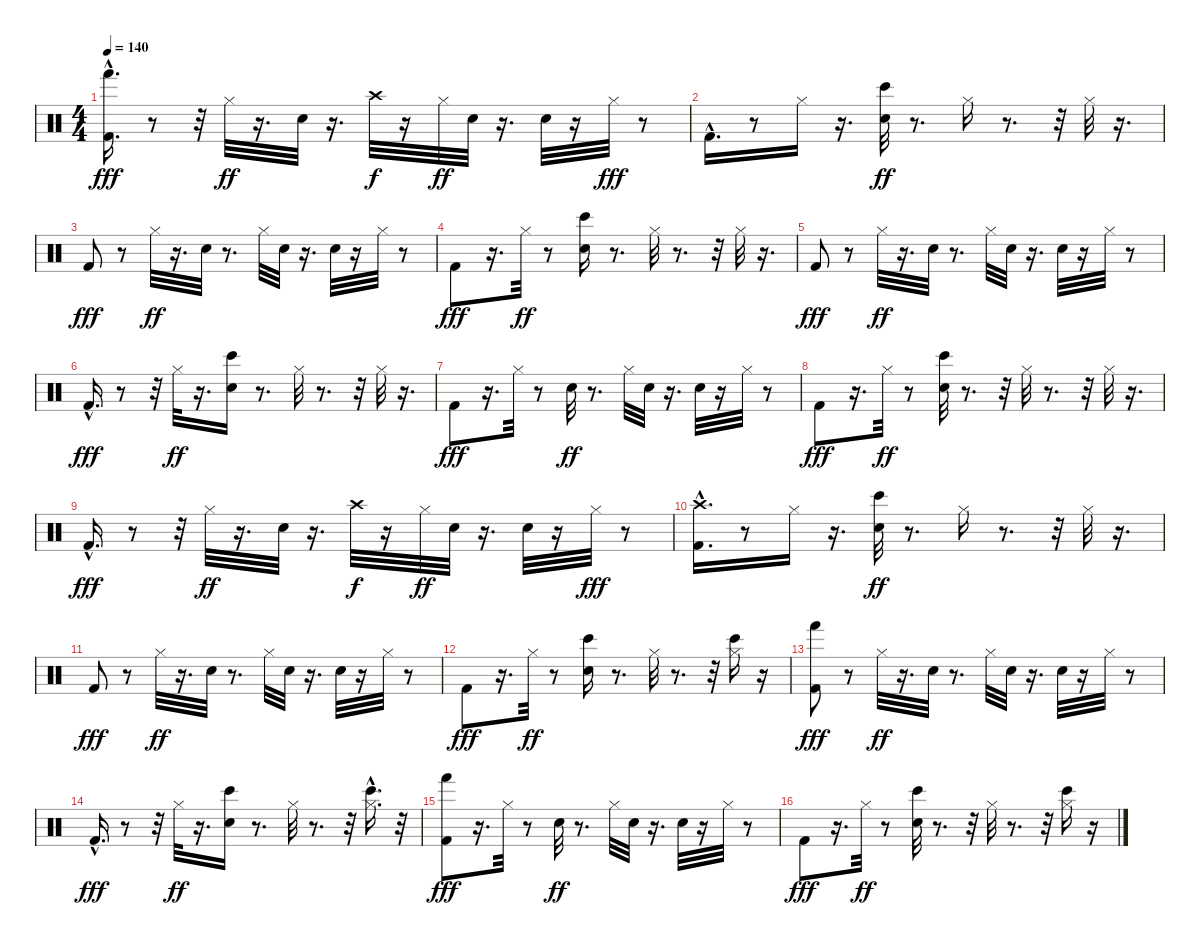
\track "" {instrument percussion}
\staff {score}
\articulation defaults
\ts (4 4)
\tempo 140
\clef neutral
\ks c
("Hand (hit)" "Kick (hit) 2"{hac}).16{d dy fff} r.8 r.32 "Hi-Hat (closed)".32{dy ff} r.16{d} "Electric Snare (hit)".32 r.16{d} "Crash high (hit)".32{dy f} r.16 "Hi-Hat (closed)".32{dy ff} "Electric Snare (hit)".32 r.16{d} "Electric Snare (hit)".32 r.16 "Hi-Hat (closed)".32{dy fff} r.8 |
"Kick (hit) 2"{hac}.16{d} r.8 "Hi-Hat (closed)".16 r.16{d} ("Electric Snare (hit)" "Bongo High (hit)").32{dy ff} r.8{d} "Hi-Hat (closed)".16 r.8{d} r.32 "Hi-Hat (closed)".32 r.16{d} |
"Kick (hit) 2".8{dy fff} r.8 "Hi-Hat (closed)".32{dy ff} r.16{d} "Electric Snare (hit)".32 r.8{d} "Hi-Hat (closed)".32 "Electric Snare (hit)".32 r.16{d} "Electric Snare (hit)".32 r.16 "Hi-Hat (closed)".32 r.8 |
"Kick (hit) 2".8{dy fff} r.16{d} "Hi-Hat (closed)".32{dy ff} r.8 ("Bongo High (hit)" "Electric Snare (hit)").16 r.8{d} "Hi-Hat (closed)".32 r.8{d} r.32 "Hi-Hat (closed)".32 r.16{d} |
"Kick (hit) 2".8{dy fff} r.8 "Hi-Hat (closed)".32{dy ff} r.16{d} "Electric Snare (hit)".32 r.8{d} "Hi-Hat (closed)".32 "Electric Snare (hit)".32 r.16{d} "Electric Snare (hit)".32 r.16 "Hi-Hat (closed)".32 r.8 |
"Kick (hit) 2"{hac}.16{d dy fff} r.8 r.32 "Hi-Hat (closed)".32{dy ff} r.16{d} ("Bongo High (hit)" "Electric Snare (hit)").16 r.8{d} "Hi-Hat (closed)".32 r.8{d} r.32 "Hi-Hat (closed)".32 r.16{d} |
"Kick (hit) 2".8{dy fff} r.16{d} "Hi-Hat (closed)".32 r.8 "Electric Snare (hit)".32{dy ff} r.8{d} "Hi-Hat (closed)".32 "Electric Snare (hit)".32 r.16{d} "Electric Snare (hit)".32 r.16 "Hi-Hat (closed)".32 r.8 |
"Kick (hit) 2".8{dy fff} r.16{d} "Hi-Hat (closed)".32{dy ff} r.8 ("Bongo High (hit)" "Electric Snare (hit)").32 r.8{d} r.32 "Hi-Hat (closed)".32 r.8{d} r.32 "Hi-Hat (closed)".32 r.16{d} |
"Kick (hit) 2"{hac}.16{d dy fff} r.8 r.32 "Hi-Hat (closed)".32{dy ff} r.16{d} "Electric Snare (hit)".32 r.16{d} "Crash high (hit)".32{dy f} r.16 "Hi-Hat (closed)".32{dy ff} "Electric Snare (hit)".32 r.16{d} "Electric Snare (hit)".32 r.16 "Hi-Hat (closed)".32{dy fff} r.8 |
("Crash high (hit)" "Kick (hit) 2"{hac}).16{d} r.8 "Hi-Hat (closed)".16 r.16{d} ("Electric Snare (hit)" "Bongo High (hit)").32{dy ff} r.8{d} "Hi-Hat (closed)".16 r.8{d} r.32 "Hi-Hat (closed)".32 r.16{d} |
"Kick (hit) 2".8{dy fff} r.8 "Hi-Hat (closed)".32{dy ff} r.16{d} "Electric Snare (hit)".32 r.8{d} "Hi-Hat (closed)".32 "Electric Snare (hit)".32 r.16{d} "Electric Snare (hit)".32 r.16 "Hi-Hat (closed)".32 r.8 |
"Kick (hit) 2".8{dy fff} r.16{d} "Hi-Hat (closed)".32{dy ff} r.8 ("Bongo High (hit)" "Electric Snare (hit)").16 r.8{d} "Hi-Hat (closed)".32 r.8{d} r.32 ("Bongo High (hit)" "Hi-Hat (closed)").16 r.16 |
("Hand (hit)" "Kick (hit) 2").8{dy fff} r.8 "Hi-Hat (closed)".32{dy ff} r.16{d} "Electric Snare (hit)".32 r.8{d} "Hi-Hat (closed)".32 "Electric Snare (hit)".32 r.16{d} "Electric Snare (hit)".32 r.16 "Hi-Hat (closed)".32 r.8 |
"Kick (hit) 2"{hac}.16{d dy fff} r.8 r.32 "Hi-Hat (closed)".32{dy ff} r.16{d} ("Bongo High (hit)" "Electric Snare (hit)").16 r.8{d} "Hi-Hat (closed)".32 r.8{d} r.32 ("Bongo High (hit)"{hac} "Hi-Hat (closed)").16{d} r.32 |
("Hand (hit)" "Kick (hit) 2").8{dy fff} r.16{d} "Hi-Hat (closed)".32 r.8 "Electric Snare (hit)".32{dy ff} r.8{d} "Hi-Hat (closed)".32 "Electric Snare (hit)".32 r.16{d} "Electric Snare (hit)".32 r.16 "Hi-Hat (closed)".32 r.8 |
"Kick (hit) 2".8{dy fff} r.16{d} "Hi-Hat (closed)".32{dy ff} r.8 ("Bongo High (hit)" "Electric Snare (hit)").32 r.8{d} r.32 "Hi-Hat (closed)".32 r.8{d} r.32 ("Bongo High (hit)" "Hi-Hat (closed)").16 r.16
